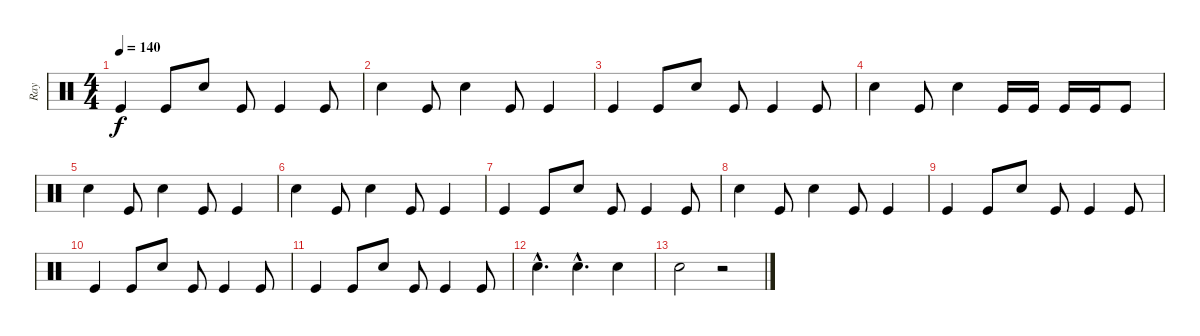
\track ("Ray" "Ray") {instrument percussion}
\staff {score}
\articulation defaults
\ts (4 4)
\tempo 140
\clef neutral
\ks c "Kick (hit)".4{dy f} "Kick (hit)".8 "Snare (hit) 2".8 "Kick (hit)".8 "Kick (hit)".4 "Kick (hit)".8
|
"Snare (hit) 2".4 "Kick (hit)".8 "Snare (hit) 2".4 "Kick (hit)".8 "Kick (hit)".4 |
"Kick (hit)".4 "Kick (hit)".8 "Snare (hit) 2".8 "Kick (hit)".8 "Kick (hit)".4 "Kick (hit)".8 |
"Snare (hit) 2".4 "Kick (hit)".8 "Snare (hit) 2".4 "Kick (hit)".16 "Kick (hit)".16 "Kick (hit)".16 "Kick (hit)".16 "Kick (hit)".8 |
"Snare (hit) 2".4 "Kick (hit)".8 "Snare (hit) 2".4 "Kick (hit)".8 "Kick (hit)".4 |
"Snare (hit) 2".4 "Kick (hit)".8 "Snare (hit) 2".4 "Kick (hit)".8 "Kick (hit)".4 |
"Kick (hit)".4 "Kick (hit)".8 "Snare (hit) 2".8 "Kick (hit)".8 "Kick (hit)".4 "Kick (hit)".8 |
"Snare (hit) 2".4 "Kick (hit)".8 "Snare (hit) 2".4 "Kick (hit)".8 "Kick (hit)".4 |
"Kick (hit)".4 "Kick (hit)".8 "Snare (hit) 2".8 "Kick (hit)".8 "Kick (hit)".4 "Kick (hit)".8 |
"Kick (hit)".4 "Kick (hit)".8 "Snare (hit) 2".8 "Kick (hit)".8 "Kick (hit)".4 "Kick (hit)".8 |
"Kick (hit)".4 "Kick (hit)".8 "Snare (hit) 2".8 "Kick (hit)".8 "Kick (hit)".4 "Kick (hit)".8 |
"Snare (hit) 2"{hac}.4{d} "Snare (hit) 2"{hac}.4{d} "Snare (hit) 2".4 |
"Snare (hit) 2".2 r.2
